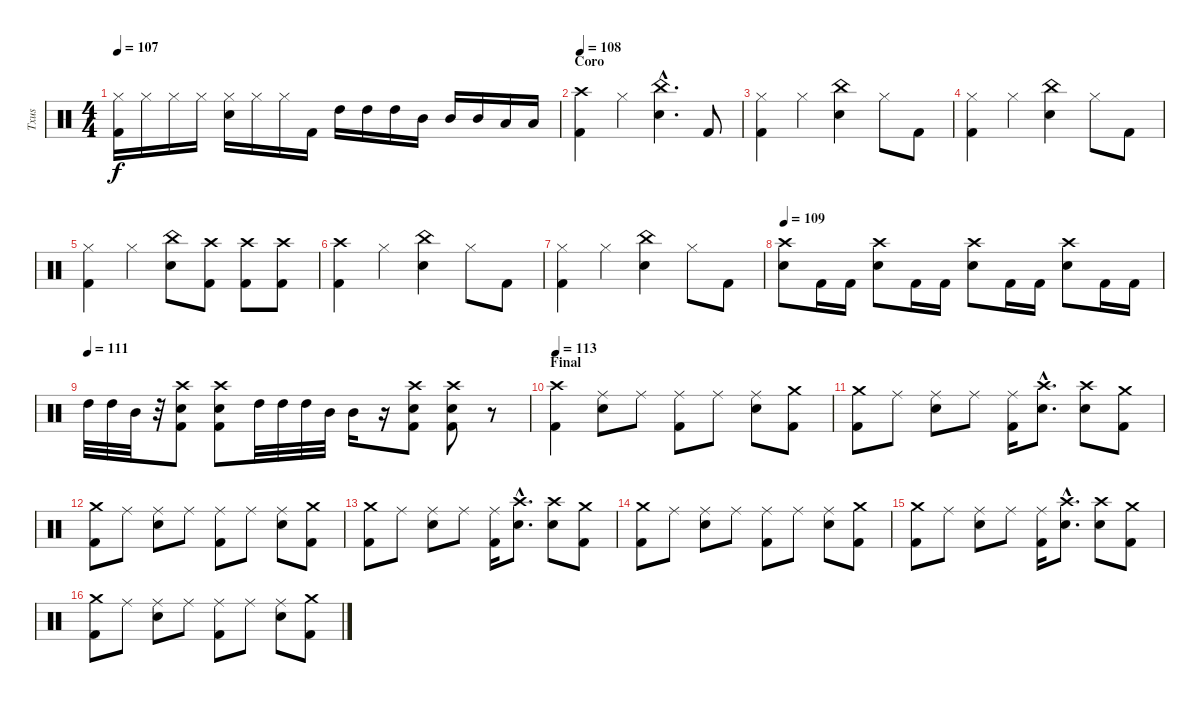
\track ("Txus" "Txus") {instrument percussion}
\staff {score}
\articulation defaults
\ts (4 4)
\tempo 107
\clef neutral
\ks c
("Kick (hit) 2" "Hi-Hat (closed)").16{dy f} "Hi-Hat (closed)".16 "Hi-Hat (closed)".16 "Hi-Hat (closed)".16 ("Electric Snare (hit)" "Hi-Hat (closed)").16 "Hi-Hat (closed)".16 "Hi-Hat (closed)".16 "Kick (hit) 2".16 "High Tom (hit)".16 "High Tom (hit)".16 "High Tom (hit)".16 "Mid Tom (hit)".16 "Mid Tom (hit)".16 "Mid Tom (hit)".16 "Low Tom (hit)".16 "Low Tom (hit)".16 |
\section ("" "Coro")
\tempo 108
("Crash high (hit)" "Kick (hit) 2").4 "Hi-Hat (closed)".4 ("Electric Snare (hit)"{hac} "China (hit)"{hac}).4{d} "Kick (hit) 2".8 |
("Kick (hit) 2" "Hi-Hat (closed)").4 "Hi-Hat (closed)".4 ("Electric Snare (hit)" "China (hit)").4 "Hi-Hat (closed)".8 "Kick (hit) 2".8 |
("Kick (hit) 2" "Hi-Hat (closed)").4 "Hi-Hat (closed)".4 ("Electric Snare (hit)" "China (hit)").4 "Hi-Hat (closed)".8 "Kick (hit) 2".8 |
("Kick (hit) 2" "Hi-Hat (closed)").4 "Hi-Hat (closed)".4 ("Electric Snare (hit)" "China (hit)").8 ("Kick (hit) 2" "Crash high (hit)").8 ("Kick (hit) 2" "Crash high (hit)").8 ("Kick (hit) 2" "Crash high (hit)").8 |
("Kick (hit) 2" "Crash high (hit)").4 "Hi-Hat (closed)".4 ("Electric Snare (hit)" "China (hit)").4 "Hi-Hat (closed)".8 "Kick (hit) 2".8 |
("Kick (hit) 2" "Hi-Hat (closed)").4 "Hi-Hat (closed)".4 ("Electric Snare (hit)" "China (hit)").4 "Hi-Hat (closed)".8 "Kick (hit) 2".8 |
\tempo 109
("Electric Snare (hit)" "Crash high (hit)").8 "Kick (hit) 2".16 "Kick (hit) 2".16 ("Electric Snare (hit)" "Crash high (hit)").8 "Kick (hit) 2".16 "Kick (hit) 2".16 ("Electric Snare (hit)" "Crash high (hit)").8 "Kick (hit) 2".16 "Kick (hit) 2".16 ("Electric Snare (hit)" "Crash high (hit)").8 "Kick (hit) 2".16 "Kick (hit) 2".16 |
\tempo (111)
"High Tom (hit)".32{volume 7} "High Tom (hit)".32 "Mid Tom (hit)".32 r.32 ("Electric Snare (hit)" "Crash high (hit)" "Kick (hit) 2").8{volume 16} ("Electric Snare (hit)" "Crash high (hit)" "Kick (hit) 2").8 "High Tom (hit)".32{volume 7} "High Tom (hit)".32 "High Tom (hit)".32 "Mid Tom (hit)".32 "Mid Tom (hit)".16 r.16 ("Electric Snare (hit)" "Crash high (hit)" "Kick (hit) 2").8{volume 16} ("Electric Snare (hit)" "Crash high (hit)" "Kick (hit) 2").8 r.8 |
\section ("" "Final")
\tempo 113
("Kick (hit) 2" "Crash high (hit)").4 ("Electric Snare (hit)" "Ride (middle)").8 "Ride (middle)".8 ("Kick (hit) 2" "Ride (middle)").8 "Ride (middle)".8 ("Electric Snare (hit)" "Ride (middle)").8 ("Kick (hit) 2" "Crash medium (hit)").8 |
("Kick (hit) 2" "Crash medium (hit)").8 "Ride (middle)".8 ("Electric Snare (hit)" "Ride (middle)").8 "Ride (middle)".8 ("Kick (hit) 2" "Ride (middle)").16 ("Electric Snare (hit)"{hac} "Crash high (hit)"{hac}).8{d} ("Electric Snare (hit)" "Crash high (hit)").8 ("Kick (hit) 2" "Crash medium (hit)").8 |
("Kick (hit) 2" "Crash medium (hit)").8 "Ride (middle)".8 ("Electric Snare (hit)" "Ride (middle)").8 "Ride (middle)".8 ("Kick (hit) 2" "Ride (middle)").8 "Ride (middle)".8 ("Electric Snare (hit)" "Ride (middle)").8 ("Kick (hit) 2" "Crash medium (hit)").8 |
("Kick (hit) 2" "Crash medium (hit)").8 "Ride (middle)".8 ("Electric Snare (hit)" "Ride (middle)").8 "Ride (middle)".8 ("Kick (hit) 2" "Ride (middle)").16 ("Electric Snare (hit)"{hac} "Crash high (hit)"{hac}).8{d} ("Electric Snare (hit)" "Crash high (hit)").8 ("Kick (hit) 2" "Crash medium (hit)").8 |
("Kick (hit) 2" "Crash medium (hit)").8 "Ride (middle)".8 ("Electric Snare (hit)" "Ride (middle)").8 "Ride (middle)".8 ("Kick (hit) 2" "Ride (middle)").8 "Ride (middle)".8 ("Electric Snare (hit)" "Ride (middle)").8 ("Kick (hit) 2" "Crash medium (hit)").8 |
("Kick (hit) 2" "Crash medium (hit)").8 "Ride (middle)".8 ("Electric Snare (hit)" "Ride (middle)").8 "Ride (middle)".8 ("Kick (hit) 2" "Ride (middle)").16 ("Electric Snare (hit)"{hac} "Crash high (hit)"{hac}).8{d} ("Electric Snare (hit)" "Crash high (hit)").8 ("Kick (hit) 2" "Crash medium (hit)").8 |
("Kick (hit) 2" "Crash medium (hit)").8 "Ride (middle)".8 ("Electric Snare (hit)" "Ride (middle)").8 "Ride (middle)".8 ("Kick (hit) 2" "Ride (middle)").8 "Ride (middle)".8 ("Electric Snare (hit)" "Ride (middle)").8 ("Kick (hit) 2" "Crash medium (hit)").8
